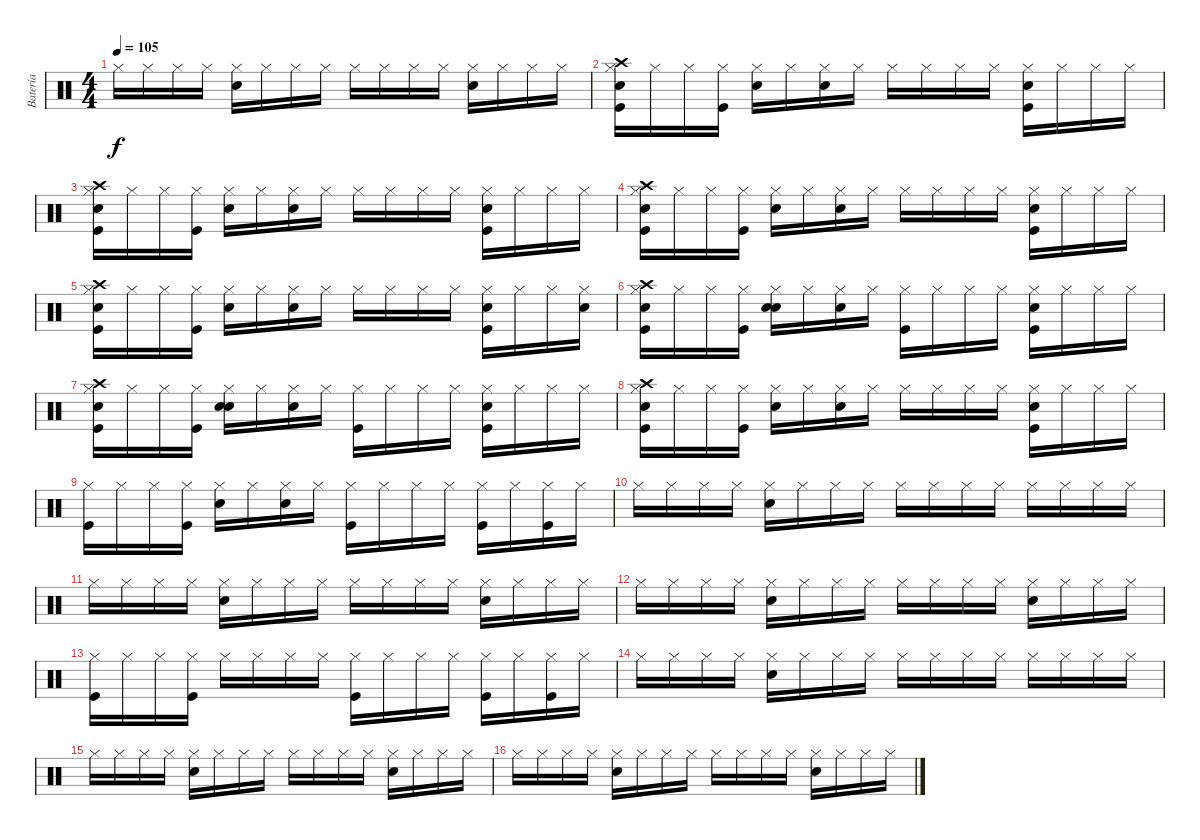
\track ("Batería" "Batería") {instrument percussion}
\staff {score}
\articulation defaults
\ts (4 4)
\tempo 105
\clef neutral
\ks c "Hi-Hat (closed)".16{dy f} "Hi-Hat (closed)".16 "Hi-Hat (closed)".16 "Hi-Hat (closed)".16
("Hi-Hat (closed)" "Snare (hit) 2").16 "Hi-Hat (closed)".16 "Hi-Hat (closed)".16 "Hi-Hat (closed)".16 "Hi-Hat (closed)".16 "Hi-Hat (closed)".16 "Hi-Hat (closed)".16 "Hi-Hat (closed)".16 ("Hi-Hat (closed)" "Snare (hit) 2").16 "Hi-Hat (closed)".16 "Hi-Hat (closed)".16 "Hi-Hat (closed)".16 |
("Hi-Hat (closed)" "Kick (hit)" "Snare (hit) 2" "Crash high (hit)").16 "Hi-Hat (closed)".16 "Hi-Hat (closed)".16 ("Hi-Hat (closed)" "Kick (hit)").16 ("Hi-Hat (closed)" "Hand Clap (hit)").16 "Hi-Hat (closed)".16 ("Hi-Hat (closed)" "Hand Clap (hit)").16 "Hi-Hat (closed)".16 "Hi-Hat (closed)".16 "Hi-Hat (closed)".16 "Hi-Hat (closed)".16 "Hi-Hat (closed)".16 ("Hi-Hat (closed)" "Kick (hit)" "Snare (hit) 2").16 "Hi-Hat (closed)".16 "Hi-Hat (closed)".16 "Hi-Hat (closed)".16 |
("Hi-Hat (closed)" "Kick (hit)" "Snare (hit) 2" "Crash high (hit)").16 "Hi-Hat (closed)".16 "Hi-Hat (closed)".16 ("Hi-Hat (closed)" "Kick (hit)").16 ("Hi-Hat (closed)" "Hand Clap (hit)").16 "Hi-Hat (closed)".16 ("Hi-Hat (closed)" "Hand Clap (hit)").16 "Hi-Hat (closed)".16 "Hi-Hat (closed)".16 "Hi-Hat (closed)".16 "Hi-Hat (closed)".16 "Hi-Hat (closed)".16 ("Hi-Hat (closed)" "Kick (hit)" "Snare (hit) 2").16 "Hi-Hat (closed)".16 "Hi-Hat (closed)".16 "Hi-Hat (closed)".16 |
("Hi-Hat (closed)" "Kick (hit)" "Snare (hit) 2" "Crash high (hit)").16 "Hi-Hat (closed)".16 "Hi-Hat (closed)".16 ("Hi-Hat (closed)" "Kick (hit)").16 ("Hi-Hat (closed)" "Hand Clap (hit)").16 "Hi-Hat (closed)".16 ("Hi-Hat (closed)" "Hand Clap (hit)").16 "Hi-Hat (closed)".16 "Hi-Hat (closed)".16 "Hi-Hat (closed)".16 "Hi-Hat (closed)".16 "Hi-Hat (closed)".16 ("Hi-Hat (closed)" "Kick (hit)" "Snare (hit) 2").16 "Hi-Hat (closed)".16 "Hi-Hat (closed)".16 "Hi-Hat (closed)".16 |
("Hi-Hat (closed)" "Kick (hit)" "Snare (hit) 2" "Crash high (hit)").16 "Hi-Hat (closed)".16 "Hi-Hat (closed)".16 ("Hi-Hat (closed)" "Kick (hit)").16 ("Hi-Hat (closed)" "Hand Clap (hit)").16 "Hi-Hat (closed)".16 ("Hi-Hat (closed)" "Hand Clap (hit)").16 "Hi-Hat (closed)".16 "Hi-Hat (closed)".16 "Hi-Hat (closed)".16 "Hi-Hat (closed)".16 "Hi-Hat (closed)".16 ("Hi-Hat (closed)" "Kick (hit)" "Snare (hit) 2").16 "Hi-Hat (closed)".16 "Hi-Hat (closed)".16 ("Hi-Hat (closed)" "Snare (hit)").16 |
("Hi-Hat (closed)" "Kick (hit)" "Snare (hit) 2" "Crash high (hit)").16 "Hi-Hat (closed)".16 "Hi-Hat (closed)".16 ("Hi-Hat (closed)" "Kick (hit)").16 ("Hi-Hat (closed)" "Hand Clap (hit)" "Snare (hit) 2").16 "Hi-Hat (closed)".16 ("Hi-Hat (closed)" "Hand Clap (hit)").16 "Hi-Hat (closed)".16 ("Hi-Hat (closed)" "Kick (hit)").16 "Hi-Hat (closed)".16 "Hi-Hat (closed)".16 "Hi-Hat (closed)".16 ("Hi-Hat (closed)" "Kick (hit)" "Snare (hit) 2").16 "Hi-Hat (closed)".16 "Hi-Hat (closed)".16 "Hi-Hat (closed)".16 |
("Hi-Hat (closed)" "Kick (hit)" "Snare (hit) 2" "Crash high (hit)").16 "Hi-Hat (closed)".16 "Hi-Hat (closed)".16 ("Hi-Hat (closed)" "Kick (hit)").16 ("Hi-Hat (closed)" "Hand Clap (hit)" "Snare (hit) 2").16 "Hi-Hat (closed)".16 ("Hi-Hat (closed)" "Hand Clap (hit)").16 "Hi-Hat (closed)".16 ("Hi-Hat (closed)" "Kick (hit)").16 "Hi-Hat (closed)".16 "Hi-Hat (closed)".16 "Hi-Hat (closed)".16 ("Hi-Hat (closed)" "Kick (hit)" "Snare (hit) 2").16 "Hi-Hat (closed)".16 "Hi-Hat (closed)".16 "Hi-Hat (closed)".16 |
("Hi-Hat (closed)" "Kick (hit)" "Snare (hit) 2" "Crash high (hit)").16 "Hi-Hat (closed)".16 "Hi-Hat (closed)".16 ("Hi-Hat (closed)" "Kick (hit)").16 ("Hi-Hat (closed)" "Hand Clap (hit)").16 "Hi-Hat (closed)".16 ("Hi-Hat (closed)" "Hand Clap (hit)").16 "Hi-Hat (closed)".16 "Hi-Hat (closed)".16 "Hi-Hat (closed)".16 "Hi-Hat (closed)".16 "Hi-Hat (closed)".16 ("Hi-Hat (closed)" "Kick (hit)" "Snare (hit) 2").16 "Hi-Hat (closed)".16 "Hi-Hat (closed)".16 "Hi-Hat (closed)".16 |
("Hi-Hat (closed)" "Kick (hit)").16 "Hi-Hat (closed)".16 "Hi-Hat (closed)".16 ("Hi-Hat (closed)" "Kick (hit)").16 ("Hi-Hat (closed)" "Hand Clap (hit)").16 "Hi-Hat (closed)".16 ("Hi-Hat (closed)" "Hand Clap (hit)").16 "Hi-Hat (closed)".16 ("Hi-Hat (closed)" "Kick (hit)").16 "Hi-Hat (closed)".16 "Hi-Hat (closed)".16 "Hi-Hat (closed)".16 ("Hi-Hat (closed)" "Kick (hit)").16 "Hi-Hat (closed)".16 ("Hi-Hat (closed)" "Kick (hit)").16 "Hi-Hat (closed)".16 |
"Hi-Hat (closed)".16 "Hi-Hat (closed)".16 "Hi-Hat (closed)".16 "Hi-Hat (closed)".16 ("Hi-Hat (closed)" "Snare (hit) 2").16 "Hi-Hat (closed)".16 "Hi-Hat (closed)".16 "Hi-Hat (closed)".16 "Hi-Hat (closed)".16 "Hi-Hat (closed)".16 "Hi-Hat (closed)".16 "Hi-Hat (closed)".16 "Hi-Hat (closed)".16 "Hi-Hat (closed)".16 "Hi-Hat (closed)".16 "Hi-Hat (closed)".16 |
"Hi-Hat (closed)".16 "Hi-Hat (closed)".16 "Hi-Hat (closed)".16 "Hi-Hat (closed)".16 ("Hi-Hat (closed)" "Snare (hit) 2").16 "Hi-Hat (closed)".16 "Hi-Hat (closed)".16 "Hi-Hat (closed)".16 "Hi-Hat (closed)".16 "Hi-Hat (closed)".16 "Hi-Hat (closed)".16 "Hi-Hat (closed)".16 ("Hi-Hat (closed)" "Snare (hit) 2").16 "Hi-Hat (closed)".16 "Hi-Hat (closed)".16 "Hi-Hat (closed)".16 |
"Hi-Hat (closed)".16 "Hi-Hat (closed)".16 "Hi-Hat (closed)".16 "Hi-Hat (closed)".16 ("Hi-Hat (closed)" "Snare (hit) 2").16 "Hi-Hat (closed)".16 "Hi-Hat (closed)".16 "Hi-Hat (closed)".16 "Hi-Hat (closed)".16 "Hi-Hat (closed)".16 "Hi-Hat (closed)".16 "Hi-Hat (closed)".16 ("Hi-Hat (closed)" "Snare (hit) 2").16 "Hi-Hat (closed)".16 "Hi-Hat (closed)".16 "Hi-Hat (closed)".16 |
("Hi-Hat (closed)" "Kick (hit)").16 "Hi-Hat (closed)".16 "Hi-Hat (closed)".16 ("Hi-Hat (closed)" "Kick (hit)").16 "Hi-Hat (closed)".16 "Hi-Hat (closed)".16 "Hi-Hat (closed)".16 "Hi-Hat (closed)".16 ("Hi-Hat (closed)" "Kick (hit)").16 "Hi-Hat (closed)".16 "Hi-Hat (closed)".16 "Hi-Hat (closed)".16 ("Hi-Hat (closed)" "Kick (hit)").16 "Hi-Hat (closed)".16 ("Hi-Hat (closed)" "Kick (hit)").16 "Hi-Hat (closed)".16 |
"Hi-Hat (closed)".16 "Hi-Hat (closed)".16 "Hi-Hat (closed)".16 "Hi-Hat (closed)".16 ("Hi-Hat (closed)" "Snare (hit) 2").16 "Hi-Hat (closed)".16 "Hi-Hat (closed)".16 "Hi-Hat (closed)".16 "Hi-Hat (closed)".16 "Hi-Hat (closed)".16 "Hi-Hat (closed)".16 "Hi-Hat (closed)".16 "Hi-Hat (closed)".16 "Hi-Hat (closed)".16 "Hi-Hat (closed)".16 "Hi-Hat (closed)".16 |
"Hi-Hat (closed)".16 "Hi-Hat (closed)".16 "Hi-Hat (closed)".16 "Hi-Hat (closed)".16 ("Hi-Hat (closed)" "Snare (hit) 2").16 "Hi-Hat (closed)".16 "Hi-Hat (closed)".16 "Hi-Hat (closed)".16 "Hi-Hat (closed)".16 "Hi-Hat (closed)".16 "Hi-Hat (closed)".16 "Hi-Hat (closed)".16 ("Hi-Hat (closed)" "Snare (hit) 2").16 "Hi-Hat (closed)".16 "Hi-Hat (closed)".16 "Hi-Hat (closed)".16 |
"Hi-Hat (closed)".16 "Hi-Hat (closed)".16 "Hi-Hat (closed)".16 "Hi-Hat (closed)".16 ("Hi-Hat (closed)" "Snare (hit) 2").16 "Hi-Hat (closed)".16 "Hi-Hat (closed)".16 "Hi-Hat (closed)".16 "Hi-Hat (closed)".16 "Hi-Hat (closed)".16 "Hi-Hat (closed)".16 "Hi-Hat (closed)".16 ("Hi-Hat (closed)" "Snare (hit) 2").16 "Hi-Hat (closed)".16 "Hi-Hat (closed)".16 "Hi-Hat (closed)".16
